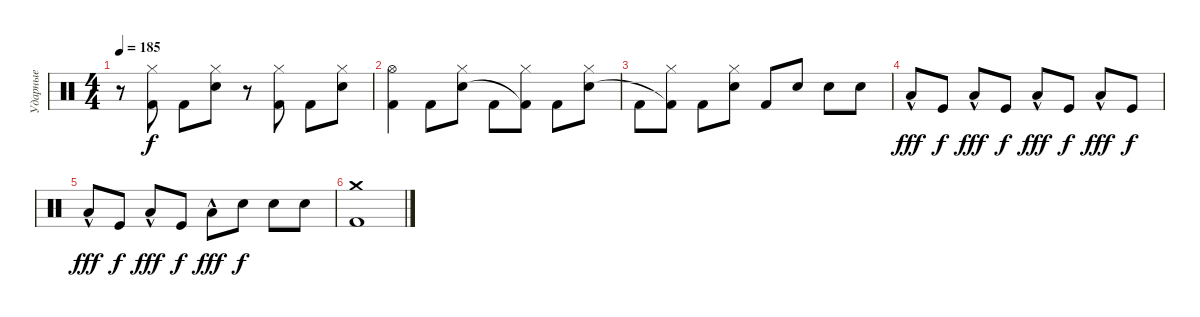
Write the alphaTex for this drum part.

\track ("Ударные" "Ударные") {instrument percussion}
\staff {score}
\articulation defaults
\ts (4 4)
\tempo 185
\clef neutral
\ks c
r.8{dy f} ("Hi-Hat (closed)" "Kick (hit) 2").8 "Kick (hit) 2".8 ("Hi-Hat (closed)" "Electric Snare (hit)").8 r.8 ("Hi-Hat (closed)" "Kick (hit) 2").8 "Kick (hit) 2".8 ("Hi-Hat (closed)" "Electric Snare (hit)").8 |
("Hi-Hat (open)" "Kick (hit) 2").4 "Kick (hit) 2".8 ("Hi-Hat (closed)" "Electric Snare (hit)").8 "Kick (hit) 2".8 ("Hi-Hat (closed)" "Kick (hit) 2"{t}).8 "Kick (hit) 2".8 ("Hi-Hat (closed)" "Electric Snare (hit)").8 |
"Kick (hit) 2".8 ("Hi-Hat (closed)" "Kick (hit) 2"{t}).8 "Kick (hit) 2".8 ("Hi-Hat (closed)" "Electric Snare (hit)").8 "Kick (hit) 2".8 "Electric Snare (hit)".8 "Electric Snare (hit)".8 "Electric Snare (hit)".8 |
"Low Tom (hit)"{hac}.8{dy fff volume 5} "Kick (hit)".8{dy f volume 15} "Low Tom (hit)"{hac}.8{dy fff} "Kick (hit)".8{dy f} "Low Tom (hit)"{hac}.8{dy fff} "Kick (hit)".8{dy f} "Low Tom (hit)"{hac}.8{dy fff} "Kick (hit)".8{dy f} |
"Low Tom (hit)"{hac}.8{dy fff} "Kick (hit)".8{dy f} "Low Tom (hit)"{hac}.8{dy fff} "Kick (hit)".8{dy f} "Low Tom (hit)"{hac}.8{dy fff} "Electric Snare (hit)".8{dy f} "Electric Snare (hit)".8 "Electric Snare (hit)".8 |
("Crash medium (hit)" "Kick (hit) 2").1
